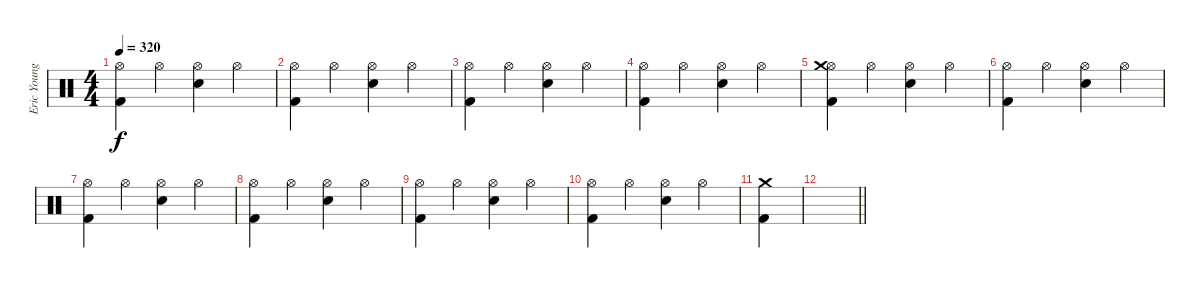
\track ("Eric Young (Drums)" "Eric Young") {instrument percussion}
\staff {score}
\articulation defaults
\ts (4 4)
\tempo 320
\clef neutral
\ks c
("Hi-Hat (open)" "Kick (hit) 2").4{dy f} "Hi-Hat (open)".4 ("Hi-Hat (open)" "Snare (hit) 2").4 "Hi-Hat (open)".4 |
("Hi-Hat (open)" "Kick (hit) 2").4 "Hi-Hat (open)".4 ("Hi-Hat (open)" "Snare (hit) 2").4 "Hi-Hat (open)".4 |
("Hi-Hat (open)" "Kick (hit) 2").4 "Hi-Hat (open)".4 ("Hi-Hat (open)" "Snare (hit) 2").4 "Hi-Hat (open)".4 |
("Hi-Hat (open)" "Kick (hit) 2").4 "Hi-Hat (open)".4 ("Hi-Hat (open)" "Snare (hit) 2").4 "Hi-Hat (open)".4 |
("Hi-Hat (open)" "Kick (hit) 2" "Crash medium (hit)").4 "Hi-Hat (open)".4 ("Hi-Hat (open)" "Snare (hit) 2").4 "Hi-Hat (open)".4 |
("Hi-Hat (open)" "Kick (hit) 2").4 "Hi-Hat (open)".4 ("Hi-Hat (open)" "Snare (hit) 2").4 "Hi-Hat (open)".4 |
("Hi-Hat (open)" "Kick (hit) 2").4 "Hi-Hat (open)".4 ("Hi-Hat (open)" "Snare (hit) 2").4 "Hi-Hat (open)".4 |
("Hi-Hat (open)" "Kick (hit) 2").4 "Hi-Hat (open)".4 ("Hi-Hat (open)" "Snare (hit) 2").4 "Hi-Hat (open)".4 |
("Hi-Hat (open)" "Kick (hit) 2").4 "Hi-Hat (open)".4 ("Hi-Hat (open)" "Snare (hit) 2").4 "Hi-Hat (open)".4 |
("Hi-Hat (open)" "Kick (hit) 2").4 "Hi-Hat (open)".4 ("Hi-Hat (open)" "Snare (hit) 2").4 "Hi-Hat (open)".4 |
("Kick (hit) 2" "Crash medium (hit)").4 |
\barLineRight lightlight
